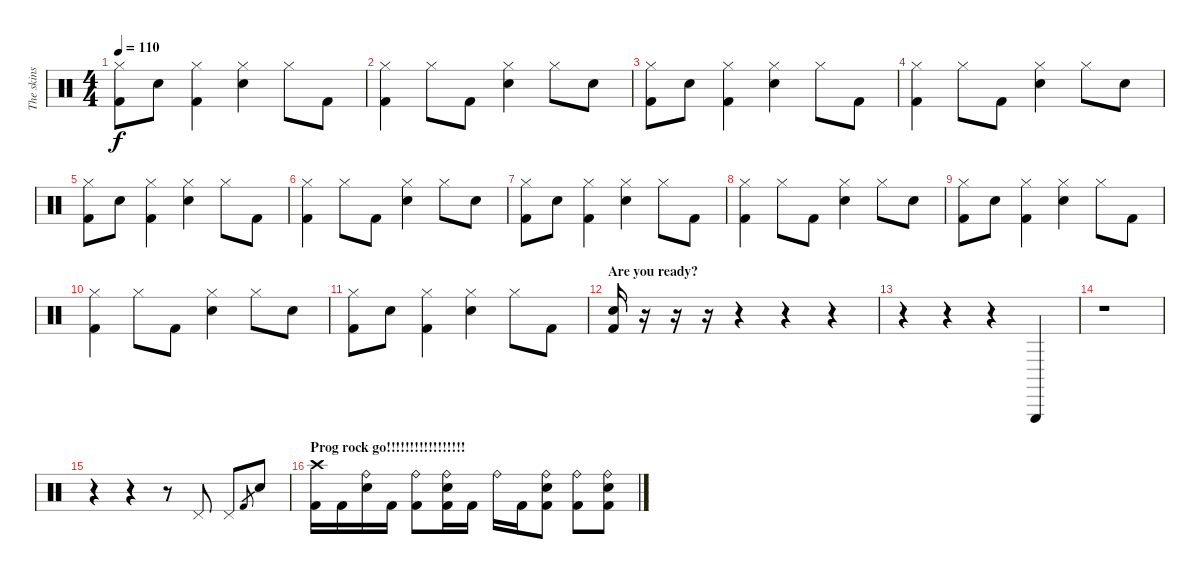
\track ("The skins" "The skins") {instrument percussion}
\staff {score}
\articulation defaults
\ts (4 4)
\tempo 110
\clef neutral
\ks c
("Hi-Hat (closed)" "Kick (hit) 2").8{dy f} "Electric Snare (hit)".8 ("Hi-Hat (closed)" "Kick (hit) 2").4 ("Hi-Hat (closed)" "Electric Snare (hit)").4 "Hi-Hat (closed)".8 "Kick (hit) 2".8 |
("Hi-Hat (closed)" "Kick (hit) 2").4 "Hi-Hat (closed)".8 "Kick (hit) 2".8 ("Hi-Hat (closed)" "Electric Snare (hit)").4 "Hi-Hat (closed)".8 "Electric Snare (hit)".8 |
("Hi-Hat (closed)" "Kick (hit) 2").8 "Electric Snare (hit)".8 ("Hi-Hat (closed)" "Kick (hit) 2").4 ("Hi-Hat (closed)" "Electric Snare (hit)").4 "Hi-Hat (closed)".8 "Kick (hit) 2".8 |
("Hi-Hat (closed)" "Kick (hit) 2").4 "Hi-Hat (closed)".8 "Kick (hit) 2".8 ("Hi-Hat (closed)" "Electric Snare (hit)").4 "Hi-Hat (closed)".8 "Electric Snare (hit)".8 |
("Hi-Hat (closed)" "Kick (hit) 2").8 "Electric Snare (hit)".8 ("Hi-Hat (closed)" "Kick (hit) 2").4 ("Hi-Hat (closed)" "Electric Snare (hit)").4 "Hi-Hat (closed)".8 "Kick (hit) 2".8 |
("Hi-Hat (closed)" "Kick (hit) 2").4 "Hi-Hat (closed)".8 "Kick (hit) 2".8 ("Hi-Hat (closed)" "Electric Snare (hit)").4 "Hi-Hat (closed)".8 "Electric Snare (hit)".8 |
("Hi-Hat (closed)" "Kick (hit) 2").8 "Electric Snare (hit)".8 ("Hi-Hat (closed)" "Kick (hit) 2").4 ("Hi-Hat (closed)" "Electric Snare (hit)").4 "Hi-Hat (closed)".8 "Kick (hit) 2".8 |
("Hi-Hat (closed)" "Kick (hit) 2").4 "Hi-Hat (closed)".8 "Kick (hit) 2".8 ("Hi-Hat (closed)" "Electric Snare (hit)").4 "Hi-Hat (closed)".8 "Electric Snare (hit)".8 |
("Hi-Hat (closed)" "Kick (hit) 2").8 "Electric Snare (hit)".8 ("Hi-Hat (closed)" "Kick (hit) 2").4 ("Hi-Hat (closed)" "Electric Snare (hit)").4 "Hi-Hat (closed)".8 "Kick (hit) 2".8 |
("Hi-Hat (closed)" "Kick (hit) 2").4 "Hi-Hat (closed)".8 "Kick (hit) 2".8 ("Hi-Hat (closed)" "Electric Snare (hit)").4 "Hi-Hat (closed)".8 "Electric Snare (hit)".8 |
("Hi-Hat (closed)" "Kick (hit) 2").8 "Electric Snare (hit)".8 ("Hi-Hat (closed)" "Kick (hit) 2").4 ("Hi-Hat (closed)" "Electric Snare (hit)").4 "Hi-Hat (closed)".8 "Kick (hit) 2".8 |
\section ("" "Are you ready?")
("Electric Snare (hit)" "Kick (hit) 2").16 r.16 r.16 r.16 r.4 r.4 r.4 |
r.4 r.4 r.4 "Triangle (hit)".4 |
r.1 |
r.4 r.4 r.8 "Pedal Hi-Hat (hit)".8 "Pedal Hi-Hat (hit)".8 "Kick (hit) 2"{h}.8{gr} "Electric Snare (hit)".8 |
\section ("" "Prog rock go!!!!!!!!!!!!!!!!!")
("Crash high (hit)" "Kick (hit) 2").16 "Kick (hit) 2".16 ("Ride (bell)" "Electric Snare (hit)").16 "Kick (hit) 2".16 ("Ride (bell)" "Kick (hit) 2").8 ("Ride (bell)" "Electric Snare (hit)" "Kick (hit) 2").16 "Kick (hit) 2".16 "Ride (bell)".16 "Kick (hit) 2".16 ("Ride (bell)" "Electric Snare (hit)" "Kick (hit) 2").8 ("Ride (bell)" "Kick (hit) 2").8 ("Ride (bell)" "Electric Snare (hit)" "Kick (hit) 2").8
